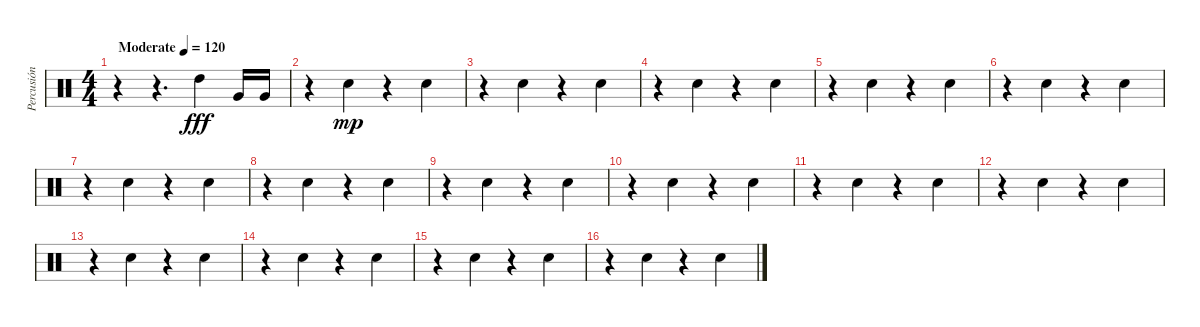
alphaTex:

\track ("Percusión" "Percusión") {instrument percussion}
\staff {score}
\articulation defaults
\ts (4 4)
\tempo (120 "Moderate")
\clef neutral
\ks c
r.4{dy fff} r.4{d} "High Tom (hit)".4 "Very Low Tom (hit)".16 "Very Low Tom (hit)".16 |
r.4 "Electric Snare (hit)".4{dy mp} r.4 "Electric Snare (hit)".4 |
r.4 "Electric Snare (hit)".4 r.4 "Electric Snare (hit)".4 |
r.4 "Electric Snare (hit)".4 r.4 "Electric Snare (hit)".4 |
r.4 "Electric Snare (hit)".4 r.4 "Electric Snare (hit)".4 |
r.4 "Electric Snare (hit)".4 r.4 "Electric Snare (hit)".4 |
r.4 "Electric Snare (hit)".4 r.4 "Electric Snare (hit)".4 |
r.4 "Electric Snare (hit)".4 r.4 "Electric Snare (hit)".4 |
r.4 "Electric Snare (hit)".4 r.4 "Electric Snare (hit)".4 |
r.4 "Electric Snare (hit)".4 r.4 "Electric Snare (hit)".4 |
r.4 "Electric Snare (hit)".4 r.4 "Electric Snare (hit)".4 |
r.4 "Electric Snare (hit)".4 r.4 "Electric Snare (hit)".4 |
r.4 "Electric Snare (hit)".4 r.4 "Electric Snare (hit)".4 |
r.4 "Electric Snare (hit)".4 r.4 "Electric Snare (hit)".4 |
r.4 "Electric Snare (hit)".4 r.4 "Electric Snare (hit)".4 |
r.4 "Electric Snare (hit)".4 r.4 "Electric Snare (hit)".4
